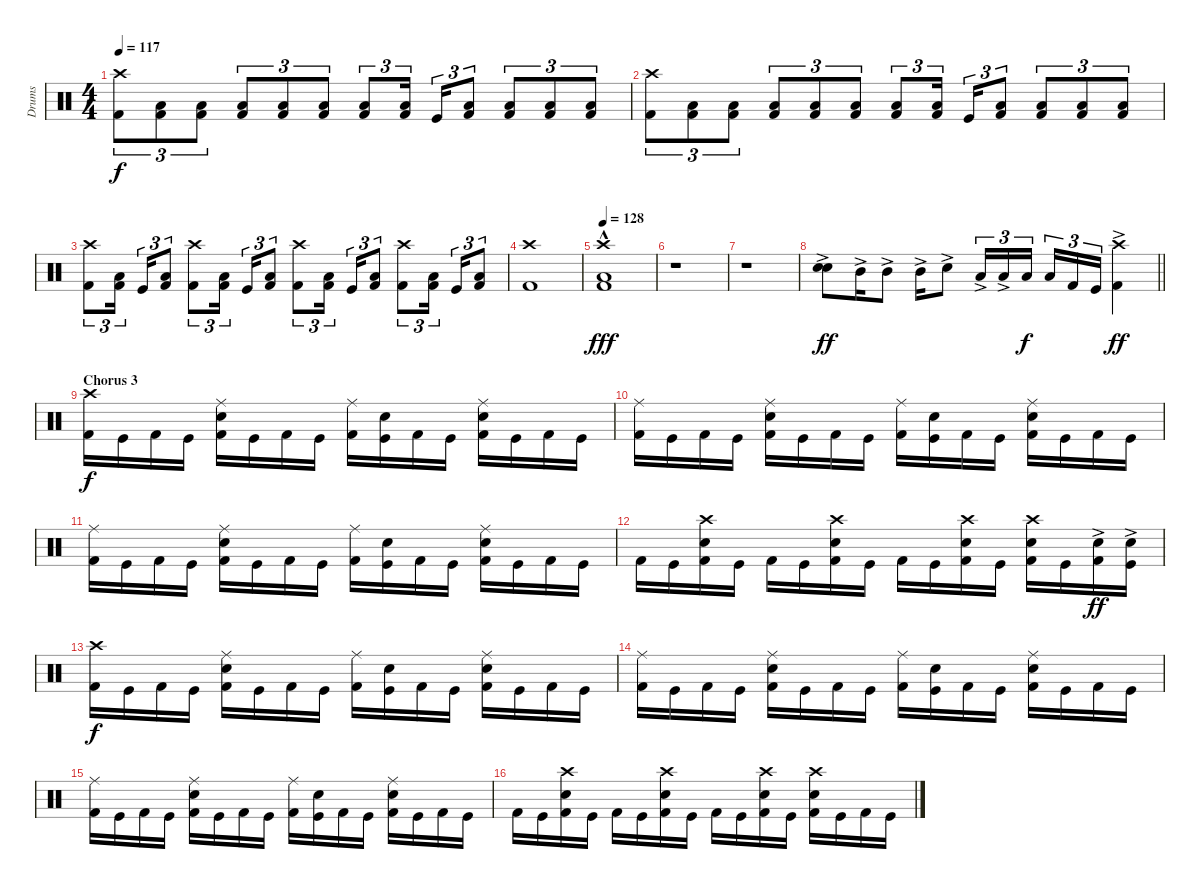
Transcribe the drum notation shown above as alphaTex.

\track ("Drums" "Drums") {instrument percussion}
\staff {score}
\articulation defaults
\ts (4 4)
\tempo 117
\clef neutral
\ks c
("Crash high (hit)" "Kick (hit) 2").8{tu (3 2) dy f} ("Low Floor Tom (hit)" "Kick (hit) 2").8{tu (3 2)} ("Low Floor Tom (hit)" "Kick (hit) 2").8{tu (3 2)} ("Low Floor Tom (hit)" "Kick (hit) 2").8{tu (3 2)} ("Low Floor Tom (hit)" "Kick (hit) 2").8{tu (3 2)} ("Low Floor Tom (hit)" "Kick (hit) 2").8{tu (3 2)} ("Low Floor Tom (hit)" "Kick (hit) 2").8{tu (3 2)} ("Low Floor Tom (hit)" "Kick (hit) 2").16{tu (3 2) beam splitsecondary} "Kick (hit)".16{tu (3 2)} ("Low Floor Tom (hit)" "Kick (hit) 2").8{tu (3 2)} ("Low Floor Tom (hit)" "Kick (hit) 2").8{tu (3 2)} ("Low Floor Tom (hit)" "Kick (hit) 2").8{tu (3 2)} ("Low Floor Tom (hit)" "Kick (hit) 2").8{tu (3 2)} |
("Crash high (hit)" "Kick (hit) 2").8{tu (3 2)} ("Low Floor Tom (hit)" "Kick (hit) 2").8{tu (3 2)} ("Low Floor Tom (hit)" "Kick (hit) 2").8{tu (3 2)} ("Low Floor Tom (hit)" "Kick (hit) 2").8{tu (3 2)} ("Low Floor Tom (hit)" "Kick (hit) 2").8{tu (3 2)} ("Low Floor Tom (hit)" "Kick (hit) 2").8{tu (3 2)} ("Low Floor Tom (hit)" "Kick (hit) 2").8{tu (3 2)} ("Low Floor Tom (hit)" "Kick (hit) 2").16{tu (3 2) beam splitsecondary} "Kick (hit)".16{tu (3 2)} ("Low Floor Tom (hit)" "Kick (hit) 2").8{tu (3 2)} ("Low Floor Tom (hit)" "Kick (hit) 2").8{tu (3 2)} ("Low Floor Tom (hit)" "Kick (hit) 2").8{tu (3 2)} ("Low Floor Tom (hit)" "Kick (hit) 2").8{tu (3 2)} |
("Crash high (hit)" "Kick (hit) 2").8{tu (3 2)} ("Low Floor Tom (hit)" "Kick (hit) 2").16{tu (3 2) beam splitsecondary} "Kick (hit)".16{tu (3 2)} ("Low Floor Tom (hit)" "Kick (hit) 2").8{tu (3 2)} ("Crash high (hit)" "Kick (hit) 2").8{tu (3 2)} ("Low Floor Tom (hit)" "Kick (hit) 2").16{tu (3 2) beam splitsecondary} "Kick (hit)".16{tu (3 2)} ("Low Floor Tom (hit)" "Kick (hit) 2").8{tu (3 2)} ("Crash high (hit)" "Kick (hit) 2").8{tu (3 2)} ("Low Floor Tom (hit)" "Kick (hit) 2").16{tu (3 2) beam splitsecondary} "Kick (hit)".16{tu (3 2)} ("Low Floor Tom (hit)" "Kick (hit) 2").8{tu (3 2)} ("Crash high (hit)" "Kick (hit) 2").8{tu (3 2)} ("Low Floor Tom (hit)" "Kick (hit) 2").16{tu (3 2) beam splitsecondary} "Kick (hit)".16{tu (3 2)} ("Low Floor Tom (hit)" "Kick (hit) 2").8{tu (3 2)} |
("Crash high (hit)" "Kick (hit) 2").1 |
\tempo 128
("Crash high (hit)"{hac} "Low Floor Tom (hit)"{hac} "Kick (hit) 2"{hac}).1{dy fff} |
r.1 |
r.1 |
\barLineRight lightlight
("Electric Snare (hit)"{ac} "Electric Snare (hit)"{ac}).8{dy ff} "Mid Tom (hit)"{ac}.16 "Mid Tom (hit)"{ac}.8 "Mid Tom (hit)"{ac}.16 "Electric Snare (hit)"{ac}.8 "Low Tom (hit)"{ac}.16{tu (3 2)} "Low Tom (hit)"{ac}.16{tu (3 2)} "Low Floor Tom (hit)".16{tu (3 2) dy f beam splitsecondary} "Low Floor Tom (hit)".16{tu (3 2)} "Kick (hit) 2".16{tu (3 2)} "Kick (hit)".16{tu (3 2)} ("Crash high (hit)"{ac} "Kick (hit) 2"{ac}).4{dy ff} |
\section ("" "Chorus 3")
("Crash high (hit)" "Kick (hit) 2").16{dy f} "Kick (hit)".16 "Kick (hit) 2".16 "Kick (hit)".16 ("Ride (middle)" "Electric Snare (hit)" "Kick (hit) 2").16 "Kick (hit)".16 "Kick (hit) 2".16 "Kick (hit)".16 ("Ride (middle)" "Kick (hit) 2").16 ("Electric Snare (hit)" "Kick (hit)").16 "Kick (hit) 2".16 "Kick (hit)".16 ("Ride (middle)" "Electric Snare (hit)" "Kick (hit) 2").16 "Kick (hit)".16 "Kick (hit) 2".16 "Kick (hit)".16 |
("Ride (middle)" "Kick (hit) 2").16 "Kick (hit)".16 "Kick (hit) 2".16 "Kick (hit)".16 ("Ride (middle)" "Electric Snare (hit)" "Kick (hit) 2").16 "Kick (hit)".16 "Kick (hit) 2".16 "Kick (hit)".16 ("Ride (middle)" "Kick (hit) 2").16 ("Electric Snare (hit)" "Kick (hit)").16 "Kick (hit) 2".16 "Kick (hit)".16 ("Ride (middle)" "Electric Snare (hit)" "Kick (hit) 2").16 "Kick (hit)".16 "Kick (hit) 2".16 "Kick (hit)".16 |
("Ride (middle)" "Kick (hit) 2").16 "Kick (hit)".16 "Kick (hit) 2".16 "Kick (hit)".16 ("Ride (middle)" "Electric Snare (hit)" "Kick (hit) 2").16 "Kick (hit)".16 "Kick (hit) 2".16 "Kick (hit)".16 ("Ride (middle)" "Kick (hit) 2").16 ("Electric Snare (hit)" "Kick (hit)").16 "Kick (hit) 2".16 "Kick (hit)".16 ("Ride (middle)" "Electric Snare (hit)" "Kick (hit) 2").16 "Kick (hit)".16 "Kick (hit) 2".16 "Kick (hit)".16 |
"Kick (hit) 2".16 "Kick (hit)".16 ("Crash high (hit)" "Electric Snare (hit)" "Kick (hit) 2").16 "Kick (hit)".16 "Kick (hit) 2".16 "Kick (hit)".16 ("Crash high (hit)" "Electric Snare (hit)" "Kick (hit) 2").16 "Kick (hit)".16 "Kick (hit) 2".16 "Kick (hit)".16 ("Crash high (hit)" "Electric Snare (hit)" "Kick (hit) 2").16 "Kick (hit)".16 ("Crash high (hit)" "Electric Snare (hit)" "Kick (hit) 2").16 "Kick (hit)".16 ("Electric Snare (hit)"{ac} "Kick (hit) 2").16{dy ff} ("Electric Snare (hit)"{ac} "Kick (hit)").16 |
("Crash high (hit)" "Kick (hit) 2").16{dy f} "Kick (hit)".16 "Kick (hit) 2".16 "Kick (hit)".16 ("Ride (middle)" "Electric Snare (hit)" "Kick (hit) 2").16 "Kick (hit)".16 "Kick (hit) 2".16 "Kick (hit)".16 ("Ride (middle)" "Kick (hit) 2").16 ("Electric Snare (hit)" "Kick (hit)").16 "Kick (hit) 2".16 "Kick (hit)".16 ("Ride (middle)" "Electric Snare (hit)" "Kick (hit) 2").16 "Kick (hit)".16 "Kick (hit) 2".16 "Kick (hit)".16 |
("Ride (middle)" "Kick (hit) 2").16 "Kick (hit)".16 "Kick (hit) 2".16 "Kick (hit)".16 ("Ride (middle)" "Electric Snare (hit)" "Kick (hit) 2").16 "Kick (hit)".16 "Kick (hit) 2".16 "Kick (hit)".16 ("Ride (middle)" "Kick (hit) 2").16 ("Electric Snare (hit)" "Kick (hit)").16 "Kick (hit) 2".16 "Kick (hit)".16 ("Ride (middle)" "Electric Snare (hit)" "Kick (hit) 2").16 "Kick (hit)".16 "Kick (hit) 2".16 "Kick (hit)".16 |
("Ride (middle)" "Kick (hit) 2").16 "Kick (hit)".16 "Kick (hit) 2".16 "Kick (hit)".16 ("Ride (middle)" "Electric Snare (hit)" "Kick (hit) 2").16 "Kick (hit)".16 "Kick (hit) 2".16 "Kick (hit)".16 ("Ride (middle)" "Kick (hit) 2").16 ("Electric Snare (hit)" "Kick (hit)").16 "Kick (hit) 2".16 "Kick (hit)".16 ("Ride (middle)" "Electric Snare (hit)" "Kick (hit) 2").16 "Kick (hit)".16 "Kick (hit) 2".16 "Kick (hit)".16 |
"Kick (hit) 2".16 "Kick (hit)".16 ("Crash high (hit)" "Electric Snare (hit)" "Kick (hit) 2").16 "Kick (hit)".16 "Kick (hit) 2".16 "Kick (hit)".16 ("Crash high (hit)" "Electric Snare (hit)" "Kick (hit) 2").16 "Kick (hit)".16 "Kick (hit) 2".16 "Kick (hit)".16 ("Crash high (hit)" "Electric Snare (hit)" "Kick (hit) 2").16 "Kick (hit)".16 ("Crash high (hit)" "Electric Snare (hit)" "Kick (hit) 2").16 "Kick (hit)".16 "Kick (hit) 2".16 "Kick (hit)".16
